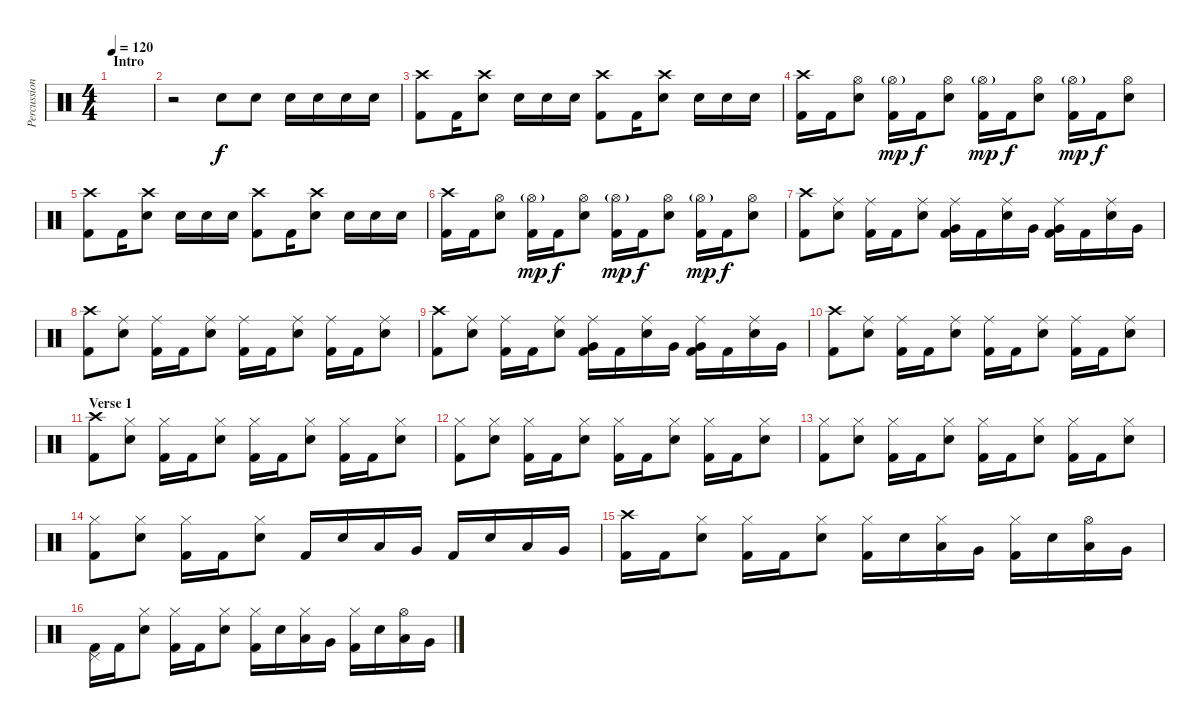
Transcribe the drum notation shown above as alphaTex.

\track ("Percussion" "Percussion") {instrument percussion}
\staff {score}
\articulation defaults
\ts (4 4)
\section ("" "Intro")
\tempo 120
\clef neutral
\ks c
|
r.2 "Snare (hit) 2".8 "Snare (hit) 2".8 "Snare (hit) 2".16 "Snare (hit) 2".16 "Snare (hit) 2".16 "Snare (hit) 2".16 |
("Kick (hit) 2" "Crash high (hit)").8 "Kick (hit) 2".16 ("Snare (hit) 2" "Crash high (hit)").8 "Snare (hit) 2".16 "Snare (hit) 2".16 "Snare (hit) 2".16 ("Kick (hit) 2" "Crash high (hit)").8 "Kick (hit) 2".16 ("Snare (hit) 2" "Crash high (hit)").8 "Snare (hit) 2".16 "Snare (hit) 2".16 "Snare (hit) 2".16 |
("Kick (hit) 2" "Crash high (hit)").16 "Kick (hit) 2".16 ("Snare (hit) 2" "Hi-Hat (open)").8 ("Kick (hit) 2" "Hi-Hat (open)"{g}).16{dy mp} "Kick (hit) 2".16{dy f} ("Snare (hit) 2" "Hi-Hat (open)").8 ("Kick (hit) 2" "Hi-Hat (open)"{g}).16{dy mp} "Kick (hit) 2".16{dy f} ("Snare (hit) 2" "Hi-Hat (open)").8 ("Kick (hit) 2" "Hi-Hat (open)"{g}).16{dy mp} "Kick (hit) 2".16{dy f} ("Snare (hit) 2" "Hi-Hat (open)").8 |
("Kick (hit) 2" "Crash high (hit)").8 "Kick (hit) 2".16 ("Snare (hit) 2" "Crash high (hit)").8 "Snare (hit) 2".16 "Snare (hit) 2".16 "Snare (hit) 2".16 ("Kick (hit) 2" "Crash high (hit)").8 "Kick (hit) 2".16 ("Snare (hit) 2" "Crash high (hit)").8 "Snare (hit) 2".16 "Snare (hit) 2".16 "Snare (hit) 2".16 |
("Kick (hit) 2" "Crash high (hit)").16 "Kick (hit) 2".16 ("Snare (hit) 2" "Hi-Hat (open)").8 ("Kick (hit) 2" "Hi-Hat (open)"{g}).16{dy mp} "Kick (hit) 2".16{dy f} ("Snare (hit) 2" "Hi-Hat (open)").8 ("Kick (hit) 2" "Hi-Hat (open)"{g}).16{dy mp} "Kick (hit) 2".16{dy f} ("Snare (hit) 2" "Hi-Hat (open)").8 ("Kick (hit) 2" "Hi-Hat (open)"{g}).16{dy mp} "Kick (hit) 2".16{dy f} ("Snare (hit) 2" "Hi-Hat (open)").8 |
("Kick (hit) 2" "Crash high (hit)").8 ("Snare (hit) 2" "Ride (middle)").8 ("Kick (hit) 2" "Ride (middle)").16 "Kick (hit) 2".16 ("Snare (hit) 2" "Ride (middle)").8 ("Kick (hit) 2" "Ride (middle)" "Very Low Tom (hit)").16 "Kick (hit) 2".16 ("Snare (hit) 2" "Ride (middle)").16 "Very Low Tom (hit)".16 ("Kick (hit) 2" "Ride (middle)" "Very Low Tom (hit)").16 "Kick (hit) 2".16 ("Snare (hit) 2" "Ride (middle)").16 "Very Low Tom (hit)".16 |
("Kick (hit) 2" "Crash high (hit)").8 ("Snare (hit) 2" "Ride (middle)").8 ("Kick (hit) 2" "Ride (middle)").16 "Kick (hit) 2".16 ("Snare (hit) 2" "Ride (middle)").8 ("Kick (hit) 2" "Ride (middle)").16 "Kick (hit) 2".16 ("Snare (hit) 2" "Ride (middle)").8 ("Kick (hit) 2" "Ride (middle)").16 "Kick (hit) 2".16 ("Snare (hit) 2" "Ride (middle)").8 |
("Kick (hit) 2" "Crash high (hit)").8 ("Snare (hit) 2" "Ride (middle)").8 ("Kick (hit) 2" "Ride (middle)").16 "Kick (hit) 2".16 ("Snare (hit) 2" "Ride (middle)").8 ("Kick (hit) 2" "Ride (middle)" "Very Low Tom (hit)").16 "Kick (hit) 2".16 ("Snare (hit) 2" "Ride (middle)").16 "Very Low Tom (hit)".16 ("Kick (hit) 2" "Ride (middle)" "Very Low Tom (hit)").16 "Kick (hit) 2".16 ("Snare (hit) 2" "Ride (middle)").16 "Very Low Tom (hit)".16 |
("Kick (hit) 2" "Crash high (hit)").8 ("Snare (hit) 2" "Ride (middle)").8 ("Kick (hit) 2" "Ride (middle)").16 "Kick (hit) 2".16 ("Snare (hit) 2" "Ride (middle)").8 ("Kick (hit) 2" "Ride (middle)").16 "Kick (hit) 2".16 ("Snare (hit) 2" "Ride (middle)").8 ("Kick (hit) 2" "Ride (middle)").16 "Kick (hit) 2".16 ("Snare (hit) 2" "Ride (middle)").8 |
\section ("" "Verse 1")
("Kick (hit) 2" "Crash high (hit)").8 ("Snare (hit) 2" "Hi-Hat (closed)").8 ("Kick (hit) 2" "Hi-Hat (closed)").16 "Kick (hit) 2".16 ("Snare (hit) 2" "Hi-Hat (closed)").8 ("Kick (hit) 2" "Hi-Hat (closed)").16 "Kick (hit) 2".16 ("Snare (hit) 2" "Hi-Hat (closed)").8 ("Kick (hit) 2" "Hi-Hat (closed)").16 "Kick (hit) 2".16 ("Snare (hit) 2" "Hi-Hat (closed)").8 |
("Kick (hit) 2" "Hi-Hat (closed)").8 ("Snare (hit) 2" "Hi-Hat (closed)").8 ("Kick (hit) 2" "Hi-Hat (closed)").16 "Kick (hit) 2".16 ("Snare (hit) 2" "Hi-Hat (closed)").8 ("Kick (hit) 2" "Hi-Hat (closed)").16 "Kick (hit) 2".16 ("Snare (hit) 2" "Hi-Hat (closed)").8 ("Kick (hit) 2" "Hi-Hat (closed)").16 "Kick (hit) 2".16 ("Snare (hit) 2" "Hi-Hat (closed)").8 |
("Kick (hit) 2" "Hi-Hat (closed)").8 ("Snare (hit) 2" "Hi-Hat (closed)").8 ("Kick (hit) 2" "Hi-Hat (closed)").16 "Kick (hit) 2".16 ("Snare (hit) 2" "Hi-Hat (closed)").8 ("Kick (hit) 2" "Hi-Hat (closed)").16 "Kick (hit) 2".16 ("Snare (hit) 2" "Hi-Hat (closed)").8 ("Kick (hit) 2" "Hi-Hat (closed)").16 "Kick (hit) 2".16 ("Snare (hit) 2" "Hi-Hat (closed)").8 |
("Kick (hit) 2" "Hi-Hat (closed)").8 ("Snare (hit) 2" "Hi-Hat (closed)").8 ("Kick (hit) 2" "Hi-Hat (closed)").16 "Kick (hit) 2".16 ("Snare (hit) 2" "Hi-Hat (closed)").8 "Kick (hit) 2".16 "Snare (hit) 2".16 "Low Tom (hit)".16 "Very Low Tom (hit)".16 "Kick (hit) 2".16 "Snare (hit) 2".16 "Low Tom (hit)".16 "Very Low Tom (hit)".16 |
("Kick (hit) 2" "Crash high (hit)").16 "Kick (hit) 2".16 ("Snare (hit) 2" "Hi-Hat (closed)").8 ("Kick (hit) 2" "Hi-Hat (closed)").16 "Kick (hit) 2".16 ("Snare (hit) 2" "Hi-Hat (closed)").8 ("Kick (hit) 2" "Hi-Hat (closed)").16 "Snare (hit) 2".16 ("Low Tom (hit)" "Hi-Hat (closed)").16 "Very Low Tom (hit)".16 ("Kick (hit) 2" "Hi-Hat (closed)").16 "Snare (hit) 2".16 ("Low Tom (hit)" "Hi-Hat (open)").16 "Very Low Tom (hit)".16 |
("Kick (hit) 2" "Pedal Hi-Hat (hit)").16 "Kick (hit) 2".16 ("Snare (hit) 2" "Hi-Hat (closed)").8 ("Kick (hit) 2" "Hi-Hat (closed)").16 "Kick (hit) 2".16 ("Snare (hit) 2" "Hi-Hat (closed)").8 ("Kick (hit) 2" "Hi-Hat (closed)").16 "Snare (hit) 2".16 ("Low Tom (hit)" "Hi-Hat (closed)").16 "Very Low Tom (hit)".16 ("Kick (hit) 2" "Hi-Hat (closed)").16 "Snare (hit) 2".16 ("Low Tom (hit)" "Hi-Hat (open)").16 "Very Low Tom (hit)".16
